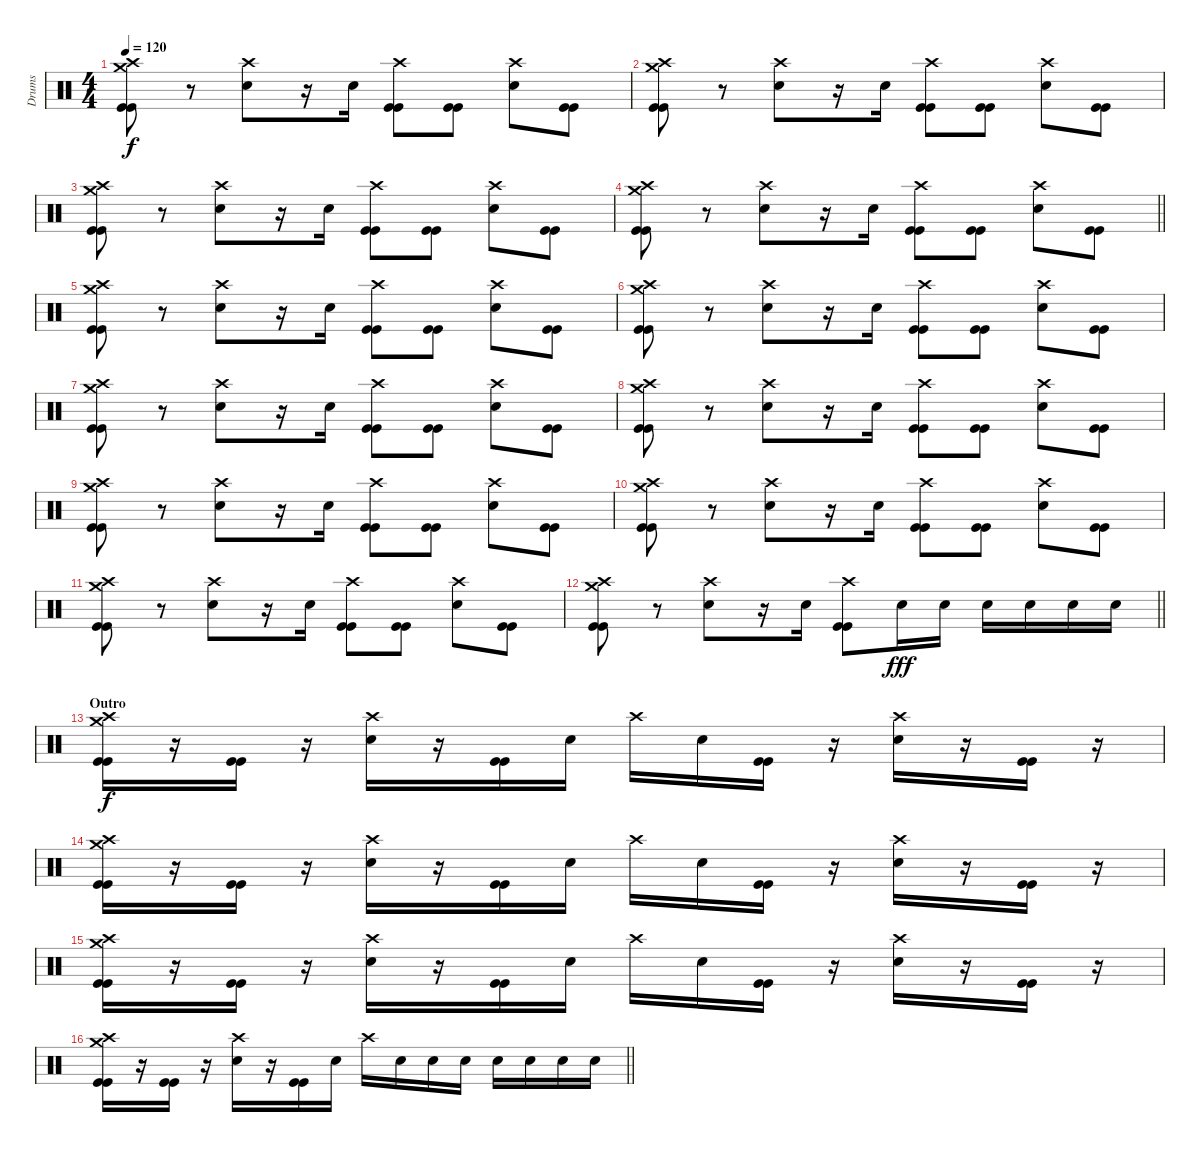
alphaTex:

\track ("Drums" "Drums") {instrument percussion}
\staff {score}
\articulation defaults
\ts (4 4)
\tempo 120
\clef neutral
\ks c
("Crash high (hit)" "Kick (hit)" "Kick (hit)" "Crash medium (hit)").8{dy f} r.8 ("Crash high (hit)" "Snare (hit) 2").8 r.16 "Snare (hit) 2".16 ("Crash high (hit)" "Kick (hit)" "Kick (hit)").8 ("Kick (hit)" "Kick (hit)").8 ("Crash high (hit)" "Snare (hit) 2").8 ("Kick (hit)" "Kick (hit)").8 |
("Crash high (hit)" "Kick (hit)" "Kick (hit)" "Crash medium (hit)").8 r.8 ("Crash high (hit)" "Snare (hit) 2").8 r.16 "Snare (hit) 2".16 ("Crash high (hit)" "Kick (hit)" "Kick (hit)").8 ("Kick (hit)" "Kick (hit)").8 ("Crash high (hit)" "Snare (hit) 2").8 ("Kick (hit)" "Kick (hit)").8 |
("Crash high (hit)" "Kick (hit)" "Kick (hit)" "Crash medium (hit)").8 r.8 ("Crash high (hit)" "Snare (hit) 2").8 r.16 "Snare (hit) 2".16 ("Crash high (hit)" "Kick (hit)" "Kick (hit)").8 ("Kick (hit)" "Kick (hit)").8 ("Crash high (hit)" "Snare (hit) 2").8 ("Kick (hit)" "Kick (hit)").8 |
\barLineRight lightlight
("Crash high (hit)" "Kick (hit)" "Kick (hit)" "Crash medium (hit)").8 r.8 ("Crash high (hit)" "Snare (hit) 2").8 r.16 "Snare (hit) 2".16 ("Crash high (hit)" "Kick (hit)" "Kick (hit)").8 ("Kick (hit)" "Kick (hit)").8 ("Crash high (hit)" "Snare (hit) 2").8 ("Kick (hit)" "Kick (hit)").8 |
("Crash high (hit)" "Kick (hit)" "Kick (hit)" "Crash medium (hit)").8 r.8 ("Crash high (hit)" "Snare (hit) 2").8 r.16 "Snare (hit) 2".16 ("Crash high (hit)" "Kick (hit)" "Kick (hit)").8 ("Kick (hit)" "Kick (hit)").8 ("Crash high (hit)" "Snare (hit) 2").8 ("Kick (hit)" "Kick (hit)").8 |
("Crash high (hit)" "Kick (hit)" "Kick (hit)" "Crash medium (hit)").8 r.8 ("Crash high (hit)" "Snare (hit) 2").8 r.16 "Snare (hit) 2".16 ("Crash high (hit)" "Kick (hit)" "Kick (hit)").8 ("Kick (hit)" "Kick (hit)").8 ("Crash high (hit)" "Snare (hit) 2").8 ("Kick (hit)" "Kick (hit)").8 |
("Crash high (hit)" "Kick (hit)" "Kick (hit)" "Crash medium (hit)").8 r.8 ("Crash high (hit)" "Snare (hit) 2").8 r.16 "Snare (hit) 2".16 ("Crash high (hit)" "Kick (hit)" "Kick (hit)").8 ("Kick (hit)" "Kick (hit)").8 ("Crash high (hit)" "Snare (hit) 2").8 ("Kick (hit)" "Kick (hit)").8 |
("Crash high (hit)" "Kick (hit)" "Kick (hit)" "Crash medium (hit)").8 r.8 ("Crash high (hit)" "Snare (hit) 2").8 r.16 "Snare (hit) 2".16 ("Crash high (hit)" "Kick (hit)" "Kick (hit)").8 ("Kick (hit)" "Kick (hit)").8 ("Crash high (hit)" "Snare (hit) 2").8 ("Kick (hit)" "Kick (hit)").8 |
("Crash high (hit)" "Kick (hit)" "Kick (hit)" "Crash medium (hit)").8 r.8 ("Crash high (hit)" "Snare (hit) 2").8 r.16 "Snare (hit) 2".16 ("Crash high (hit)" "Kick (hit)" "Kick (hit)").8 ("Kick (hit)" "Kick (hit)").8 ("Crash high (hit)" "Snare (hit) 2").8 ("Kick (hit)" "Kick (hit)").8 |
("Crash high (hit)" "Kick (hit)" "Kick (hit)" "Crash medium (hit)").8 r.8 ("Crash high (hit)" "Snare (hit) 2").8 r.16 "Snare (hit) 2".16 ("Crash high (hit)" "Kick (hit)" "Kick (hit)").8 ("Kick (hit)" "Kick (hit)").8 ("Crash high (hit)" "Snare (hit) 2").8 ("Kick (hit)" "Kick (hit)").8 |
("Crash high (hit)" "Kick (hit)" "Kick (hit)" "Crash medium (hit)").8 r.8 ("Crash high (hit)" "Snare (hit) 2").8 r.16 "Snare (hit) 2".16 ("Crash high (hit)" "Kick (hit)" "Kick (hit)").8 ("Kick (hit)" "Kick (hit)").8 ("Crash high (hit)" "Snare (hit) 2").8 ("Kick (hit)" "Kick (hit)").8 |
\barLineRight lightlight
("Crash high (hit)" "Kick (hit)" "Kick (hit)" "Crash medium (hit)").8 r.8 ("Crash high (hit)" "Snare (hit) 2").8 r.16 "Snare (hit) 2".16 ("Crash high (hit)" "Kick (hit)" "Kick (hit)").8 "Snare (hit) 2".16{dy fff} "Snare (hit) 2".16 "Snare (hit) 2".16 "Snare (hit) 2".16 "Snare (hit) 2".16 "Snare (hit) 2".16 |
\section ("" "Outro")
("Crash high (hit)" "Kick (hit)" "Kick (hit)" "Crash medium (hit)").16{dy f} r.16 ("Kick (hit)" "Kick (hit)").16 r.16 ("Crash high (hit)" "Snare (hit) 2").16 r.16 ("Kick (hit)" "Kick (hit)").16 "Snare (hit) 2".16 "Crash high (hit)".16 "Snare (hit) 2".16 ("Kick (hit)" "Kick (hit)").16 r.16 ("Crash high (hit)" "Snare (hit) 2").16 r.16 ("Kick (hit)" "Kick (hit)").16 r.16 |
("Crash high (hit)" "Kick (hit)" "Kick (hit)" "Crash medium (hit)").16 r.16 ("Kick (hit)" "Kick (hit)").16 r.16 ("Crash high (hit)" "Snare (hit) 2").16 r.16 ("Kick (hit)" "Kick (hit)").16 "Snare (hit) 2".16 "Crash high (hit)".16 "Snare (hit) 2".16 ("Kick (hit)" "Kick (hit)").16 r.16 ("Crash high (hit)" "Snare (hit) 2").16 r.16 ("Kick (hit)" "Kick (hit)").16 r.16 |
("Crash high (hit)" "Kick (hit)" "Kick (hit)" "Crash medium (hit)").16 r.16 ("Kick (hit)" "Kick (hit)").16 r.16 ("Crash high (hit)" "Snare (hit) 2").16 r.16 ("Kick (hit)" "Kick (hit)").16 "Snare (hit) 2".16 "Crash high (hit)".16 "Snare (hit) 2".16 ("Kick (hit)" "Kick (hit)").16 r.16 ("Crash high (hit)" "Snare (hit) 2").16 r.16 ("Kick (hit)" "Kick (hit)").16 r.16 |
\barLineRight lightlight
("Crash high (hit)" "Kick (hit)" "Kick (hit)" "Crash medium (hit)").16 r.16 ("Kick (hit)" "Kick (hit)").16 r.16 ("Crash high (hit)" "Snare (hit) 2").16 r.16 ("Kick (hit)" "Kick (hit)").16 "Snare (hit) 2".16 "Crash high (hit)".16 "Snare (hit) 2".16 "Snare (hit) 2".16 "Snare (hit) 2".16 "Snare (hit) 2".16 "Snare (hit) 2".16 "Snare (hit) 2".16 "Snare (hit) 2".16
